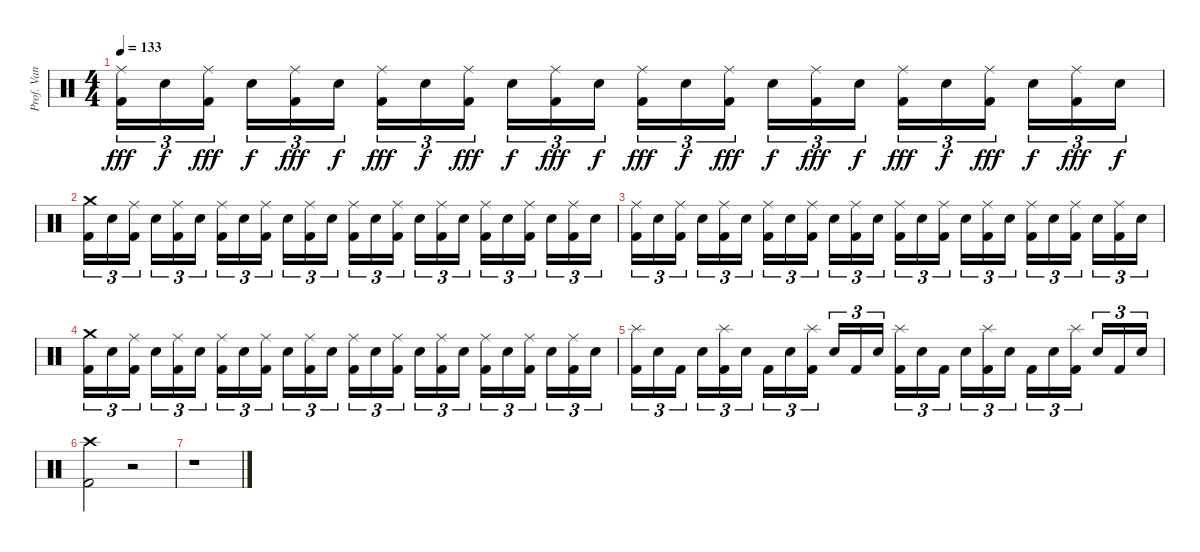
\track ("Prof. Van Helsing (Drums)" "Prof. Van ") {instrument percussion}
\staff {score}
\articulation defaults
\ts (4 4)
\tempo 133
\clef neutral
\ks c
("Ride (middle)" "Kick (hit) 2").16{tu (3 2) dy fff} "Snare (hit) 2".16{tu (3 2) dy f} ("Ride (middle)" "Kick (hit) 2").16{tu (3 2) dy fff beam splitsecondary} "Snare (hit) 2".16{tu (3 2) dy f} ("Ride (middle)" "Kick (hit) 2").16{tu (3 2) dy fff} "Snare (hit) 2".16{tu (3 2) dy f} ("Ride (middle)" "Kick (hit) 2").16{tu (3 2) dy fff} "Snare (hit) 2".16{tu (3 2) dy f} ("Ride (middle)" "Kick (hit) 2").16{tu (3 2) dy fff beam splitsecondary} "Snare (hit) 2".16{tu (3 2) dy f} ("Ride (middle)" "Kick (hit) 2").16{tu (3 2) dy fff} "Snare (hit) 2".16{tu (3 2) dy f} ("Ride (middle)" "Kick (hit) 2").16{tu (3 2) dy fff} "Snare (hit) 2".16{tu (3 2) dy f} ("Ride (middle)" "Kick (hit) 2").16{tu (3 2) dy fff beam splitsecondary} "Snare (hit) 2".16{tu (3 2) dy f} ("Ride (middle)" "Kick (hit) 2").16{tu (3 2) dy fff} "Snare (hit) 2".16{tu (3 2) dy f} ("Ride (middle)" "Kick (hit) 2").16{tu (3 2) dy fff} "Snare (hit) 2".16{tu (3 2) dy f} ("Ride (middle)" "Kick (hit) 2").16{tu (3 2) dy fff beam splitsecondary} "Snare (hit) 2".16{tu (3 2) dy f} ("Ride (middle)" "Kick (hit) 2").16{tu (3 2) dy fff} "Snare (hit) 2".16{tu (3 2) dy f} |
("Crash medium (hit)" "Kick (hit) 2").16{tu (3 2)} "Snare (hit) 2".16{tu (3 2)} ("Ride (middle)" "Kick (hit) 2").16{tu (3 2) beam splitsecondary} "Snare (hit) 2".16{tu (3 2)} ("Ride (middle)" "Kick (hit) 2").16{tu (3 2)} "Snare (hit) 2".16{tu (3 2)} ("Ride (middle)" "Kick (hit) 2").16{tu (3 2)} "Snare (hit) 2".16{tu (3 2)} ("Ride (middle)" "Kick (hit) 2").16{tu (3 2) beam splitsecondary} "Snare (hit) 2".16{tu (3 2)} ("Ride (middle)" "Kick (hit) 2").16{tu (3 2)} "Snare (hit) 2".16{tu (3 2)} ("Ride (middle)" "Kick (hit) 2").16{tu (3 2)} "Snare (hit) 2".16{tu (3 2)} ("Ride (middle)" "Kick (hit) 2").16{tu (3 2) beam splitsecondary} "Snare (hit) 2".16{tu (3 2)} ("Ride (middle)" "Kick (hit) 2").16{tu (3 2)} "Snare (hit) 2".16{tu (3 2)} ("Ride (middle)" "Kick (hit) 2").16{tu (3 2)} "Snare (hit) 2".16{tu (3 2)} ("Ride (middle)" "Kick (hit) 2").16{tu (3 2) beam splitsecondary} "Snare (hit) 2".16{tu (3 2)} ("Ride (middle)" "Kick (hit) 2").16{tu (3 2)} "Snare (hit) 2".16{tu (3 2)} |
("Ride (middle)" "Kick (hit) 2").16{tu (3 2)} "Snare (hit) 2".16{tu (3 2)} ("Ride (middle)" "Kick (hit) 2").16{tu (3 2) beam splitsecondary} "Snare (hit) 2".16{tu (3 2)} ("Ride (middle)" "Kick (hit) 2").16{tu (3 2)} "Snare (hit) 2".16{tu (3 2)} ("Ride (middle)" "Kick (hit) 2").16{tu (3 2)} "Snare (hit) 2".16{tu (3 2)} ("Ride (middle)" "Kick (hit) 2").16{tu (3 2) beam splitsecondary} "Snare (hit) 2".16{tu (3 2)} ("Ride (middle)" "Kick (hit) 2").16{tu (3 2)} "Snare (hit) 2".16{tu (3 2)} ("Ride (middle)" "Kick (hit) 2").16{tu (3 2)} "Snare (hit) 2".16{tu (3 2)} ("Ride (middle)" "Kick (hit) 2").16{tu (3 2) beam splitsecondary} "Snare (hit) 2".16{tu (3 2)} ("Ride (middle)" "Kick (hit) 2").16{tu (3 2)} "Snare (hit) 2".16{tu (3 2)} ("Ride (middle)" "Kick (hit) 2").16{tu (3 2)} "Snare (hit) 2".16{tu (3 2)} ("Ride (middle)" "Kick (hit) 2").16{tu (3 2) beam splitsecondary} "Snare (hit) 2".16{tu (3 2)} ("Ride (middle)" "Kick (hit) 2").16{tu (3 2)} "Snare (hit) 2".16{tu (3 2)} |
("Crash medium (hit)" "Kick (hit) 2").16{tu (3 2)} "Snare (hit) 2".16{tu (3 2)} ("Ride (middle)" "Kick (hit) 2").16{tu (3 2) beam splitsecondary} "Snare (hit) 2".16{tu (3 2)} ("Ride (middle)" "Kick (hit) 2").16{tu (3 2)} "Snare (hit) 2".16{tu (3 2)} ("Ride (middle)" "Kick (hit) 2").16{tu (3 2)} "Snare (hit) 2".16{tu (3 2)} ("Ride (middle)" "Kick (hit) 2").16{tu (3 2) beam splitsecondary} "Snare (hit) 2".16{tu (3 2)} ("Ride (middle)" "Kick (hit) 2").16{tu (3 2)} "Snare (hit) 2".16{tu (3 2)} ("Ride (middle)" "Kick (hit) 2").16{tu (3 2)} "Snare (hit) 2".16{tu (3 2)} ("Ride (middle)" "Kick (hit) 2").16{tu (3 2) beam splitsecondary} "Snare (hit) 2".16{tu (3 2)} ("Ride (middle)" "Kick (hit) 2").16{tu (3 2)} "Snare (hit) 2".16{tu (3 2)} ("Ride (middle)" "Kick (hit) 2").16{tu (3 2)} "Snare (hit) 2".16{tu (3 2)} ("Ride (middle)" "Kick (hit) 2").16{tu (3 2) beam splitsecondary} "Snare (hit) 2".16{tu (3 2)} ("Ride (middle)" "Kick (hit) 2").16{tu (3 2)} "Snare (hit) 2".16{tu (3 2)} |
("Splash (hit)" "Kick (hit) 2").16{tu (3 2)} "Snare (hit) 2".16{tu (3 2)} "Kick (hit) 2".16{tu (3 2) beam splitsecondary} "Snare (hit) 2".16{tu (3 2)} ("Splash (hit)" "Kick (hit) 2").16{tu (3 2)} "Snare (hit) 2".16{tu (3 2)} "Kick (hit) 2".16{tu (3 2)} "Snare (hit) 2".16{tu (3 2)} ("Splash (hit)" "Kick (hit) 2").16{tu (3 2) beam splitsecondary} "Snare (hit) 2".16{tu (3 2)} "Kick (hit) 2".16{tu (3 2)} "Snare (hit) 2".16{tu (3 2)} ("Splash (hit)" "Kick (hit) 2").16{tu (3 2)} "Snare (hit) 2".16{tu (3 2)} "Kick (hit) 2".16{tu (3 2) beam splitsecondary} "Snare (hit) 2".16{tu (3 2)} ("Splash (hit)" "Kick (hit) 2").16{tu (3 2)} "Snare (hit) 2".16{tu (3 2)} "Kick (hit) 2".16{tu (3 2)} "Snare (hit) 2".16{tu (3 2)} ("Splash (hit)" "Kick (hit) 2").16{tu (3 2) beam splitsecondary} "Snare (hit) 2".16{tu (3 2)} "Kick (hit) 2".16{tu (3 2)} "Snare (hit) 2".16{tu (3 2)} |
("Crash high (hit)" "Kick (hit) 2").2 r.2 |
r.1
